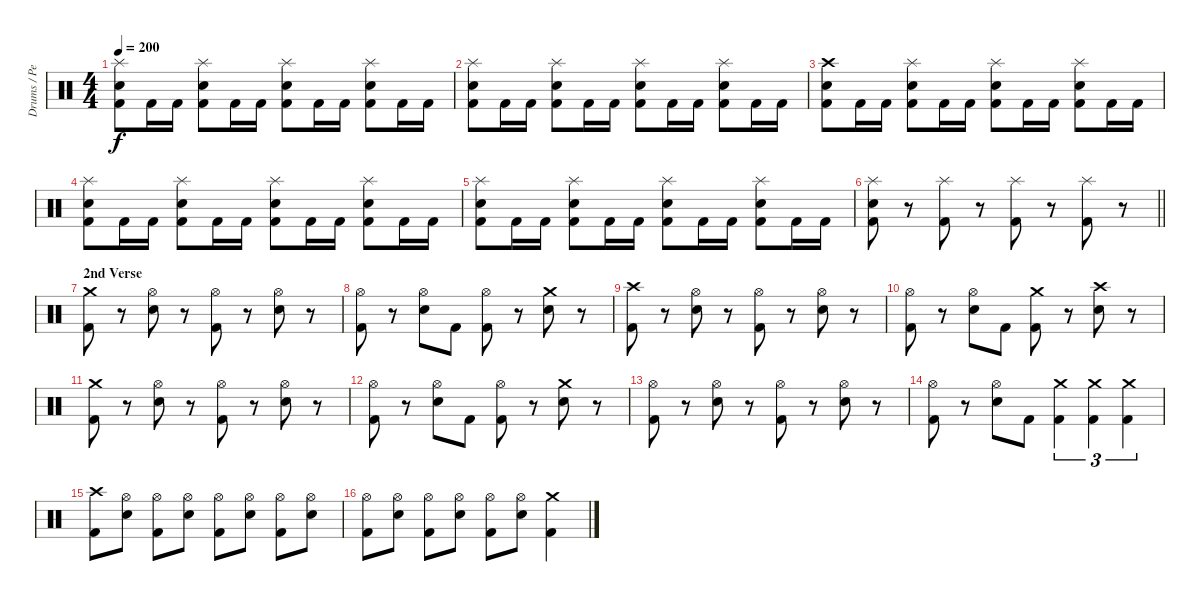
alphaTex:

\track ("Drums / Percussion" "Drums / Pe") {instrument percussion}
\staff {score}
\articulation defaults
\ts (4 4)
\tempo 200
\clef neutral
\ks c
("Splash (hit)" "Electric Snare (hit)" "Kick (hit) 2").8{dy f} "Kick (hit) 2".16 "Kick (hit) 2".16 ("Splash (hit)" "Electric Snare (hit)" "Kick (hit) 2").8 "Kick (hit) 2".16 "Kick (hit) 2".16 ("Splash (hit)" "Electric Snare (hit)" "Kick (hit) 2").8 "Kick (hit) 2".16 "Kick (hit) 2".16 ("Splash (hit)" "Electric Snare (hit)" "Kick (hit) 2").8 "Kick (hit) 2".16 "Kick (hit) 2".16 |
("Splash (hit)" "Electric Snare (hit)" "Kick (hit) 2").8 "Kick (hit) 2".16 "Kick (hit) 2".16 ("Splash (hit)" "Electric Snare (hit)" "Kick (hit) 2").8 "Kick (hit) 2".16 "Kick (hit) 2".16 ("Splash (hit)" "Electric Snare (hit)" "Kick (hit) 2").8 "Kick (hit) 2".16 "Kick (hit) 2".16 ("Splash (hit)" "Electric Snare (hit)" "Kick (hit) 2").8 "Kick (hit) 2".16 "Kick (hit) 2".16 |
("Crash high (hit)" "Electric Snare (hit)" "Kick (hit) 2").8 "Kick (hit) 2".16 "Kick (hit) 2".16 ("Splash (hit)" "Electric Snare (hit)" "Kick (hit) 2").8 "Kick (hit) 2".16 "Kick (hit) 2".16 ("Splash (hit)" "Electric Snare (hit)" "Kick (hit) 2").8 "Kick (hit) 2".16 "Kick (hit) 2".16 ("Splash (hit)" "Electric Snare (hit)" "Kick (hit) 2").8 "Kick (hit) 2".16 "Kick (hit) 2".16 |
("Splash (hit)" "Electric Snare (hit)" "Kick (hit) 2").8 "Kick (hit) 2".16 "Kick (hit) 2".16 ("Splash (hit)" "Electric Snare (hit)" "Kick (hit) 2").8 "Kick (hit) 2".16 "Kick (hit) 2".16 ("Splash (hit)" "Electric Snare (hit)" "Kick (hit) 2").8 "Kick (hit) 2".16 "Kick (hit) 2".16 ("Splash (hit)" "Electric Snare (hit)" "Kick (hit) 2").8 "Kick (hit) 2".16 "Kick (hit) 2".16 |
("Splash (hit)" "Electric Snare (hit)" "Kick (hit) 2").8 "Kick (hit) 2".16 "Kick (hit) 2".16 ("Splash (hit)" "Electric Snare (hit)" "Kick (hit) 2").8 "Kick (hit) 2".16 "Kick (hit) 2".16 ("Splash (hit)" "Electric Snare (hit)" "Kick (hit) 2").8 "Kick (hit) 2".16 "Kick (hit) 2".16 ("Splash (hit)" "Electric Snare (hit)" "Kick (hit) 2").8 "Kick (hit) 2".16 "Kick (hit) 2".16 |
\barLineRight lightlight
("Splash (hit)" "Electric Snare (hit)" "Kick (hit) 2").8 r.8 ("Splash (hit)" "Kick (hit) 2").8 r.8 ("Splash (hit)" "Kick (hit) 2").8 r.8 ("Splash (hit)" "Kick (hit) 2").8 r.8 |
\section ("" "2nd Verse")
("Crash medium (hit)" "Kick (hit) 2").8 r.8 ("Hi-Hat (open)" "Electric Snare (hit)").8 r.8 ("Hi-Hat (open)" "Kick (hit) 2").8 r.8 ("Hi-Hat (open)" "Electric Snare (hit)").8 r.8 |
("Hi-Hat (open)" "Kick (hit) 2").8 r.8 ("Hi-Hat (open)" "Electric Snare (hit)").8 "Kick (hit) 2".8 ("Hi-Hat (open)" "Kick (hit) 2").8 r.8 ("Crash medium (hit)" "Electric Snare (hit)").8 r.8 |
("Crash high (hit)" "Kick (hit) 2").8 r.8 ("Hi-Hat (open)" "Electric Snare (hit)").8 r.8 ("Hi-Hat (open)" "Kick (hit) 2").8 r.8 ("Hi-Hat (open)" "Electric Snare (hit)").8 r.8 |
("Hi-Hat (open)" "Kick (hit) 2").8 r.8 ("Hi-Hat (open)" "Electric Snare (hit)").8 "Kick (hit) 2".8 ("Crash medium (hit)" "Kick (hit) 2").8 r.8 ("Crash high (hit)" "Electric Snare (hit)").8 r.8 |
("Crash medium (hit)" "Kick (hit) 2").8 r.8 ("Hi-Hat (open)" "Electric Snare (hit)").8 r.8 ("Hi-Hat (open)" "Kick (hit) 2").8 r.8 ("Hi-Hat (open)" "Electric Snare (hit)").8 r.8 |
("Hi-Hat (open)" "Kick (hit) 2").8 r.8 ("Hi-Hat (open)" "Electric Snare (hit)").8 "Kick (hit) 2".8 ("Hi-Hat (open)" "Kick (hit) 2").8 r.8 ("Crash medium (hit)" "Electric Snare (hit)").8 r.8 |
("Hi-Hat (open)" "Kick (hit) 2").8 r.8 ("Hi-Hat (open)" "Electric Snare (hit)").8 r.8 ("Hi-Hat (open)" "Kick (hit) 2").8 r.8 ("Hi-Hat (open)" "Electric Snare (hit)").8 r.8 |
("Hi-Hat (open)" "Kick (hit) 2").8 r.8 ("Hi-Hat (open)" "Electric Snare (hit)").8 "Kick (hit) 2".8 ("Crash medium (hit)" "Kick (hit) 2").4{tu (3 2)} ("Crash medium (hit)" "Kick (hit) 2").4{tu (3 2)} ("Crash medium (hit)" "Kick (hit) 2").4{tu (3 2)} |
("Crash high (hit)" "Kick (hit) 2").8 ("Hi-Hat (open)" "Electric Snare (hit)").8 ("Hi-Hat (open)" "Kick (hit) 2").8 ("Hi-Hat (open)" "Electric Snare (hit)").8 ("Hi-Hat (open)" "Kick (hit) 2").8 ("Hi-Hat (open)" "Electric Snare (hit)").8 ("Hi-Hat (open)" "Kick (hit) 2").8 ("Hi-Hat (open)" "Electric Snare (hit)").8 |
("Hi-Hat (open)" "Kick (hit) 2").8 ("Hi-Hat (open)" "Electric Snare (hit)").8 ("Hi-Hat (open)" "Kick (hit) 2").8 ("Hi-Hat (open)" "Electric Snare (hit)").8 ("Hi-Hat (open)" "Kick (hit) 2").8 ("Hi-Hat (open)" "Electric Snare (hit)").8 ("Crash medium (hit)" "Kick (hit) 2").4
